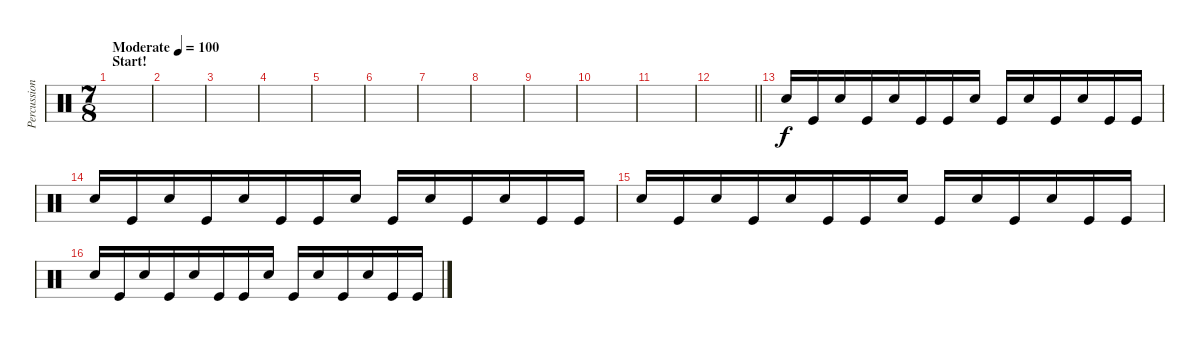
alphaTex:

\track ("Percussion" "Percussion") {instrument percussion}
\staff {score}
\articulation defaults
\ts (7 8)
\section ("" "Start!")
\tempo (100 "Moderate")
\clef neutral
\ks c
|
|
|
|
|
|
|
|
|
|
|
\barLineRight lightlight
|
\section ("" "")
"Snare (hit) 2".16 "Kick (hit)".16 "Snare (hit) 2".16 "Kick (hit)".16 "Snare (hit) 2".16 "Kick (hit)".16 "Kick (hit)".16 "Snare (hit) 2".16 "Kick (hit)".16 "Snare (hit) 2".16 "Kick (hit)".16 "Snare (hit) 2".16 "Kick (hit)".16 "Kick (hit)".16 |
"Snare (hit) 2".16 "Kick (hit)".16 "Snare (hit) 2".16 "Kick (hit)".16 "Snare (hit) 2".16 "Kick (hit)".16 "Kick (hit)".16 "Snare (hit) 2".16 "Kick (hit)".16 "Snare (hit) 2".16 "Kick (hit)".16 "Snare (hit) 2".16 "Kick (hit)".16 "Kick (hit)".16 |
"Snare (hit) 2".16 "Kick (hit)".16 "Snare (hit) 2".16 "Kick (hit)".16 "Snare (hit) 2".16 "Kick (hit)".16 "Kick (hit)".16 "Snare (hit) 2".16 "Kick (hit)".16 "Snare (hit) 2".16 "Kick (hit)".16 "Snare (hit) 2".16 "Kick (hit)".16 "Kick (hit)".16 |
"Snare (hit) 2".16 "Kick (hit)".16 "Snare (hit) 2".16 "Kick (hit)".16 "Snare (hit) 2".16 "Kick (hit)".16 "Kick (hit)".16 "Snare (hit) 2".16 "Kick (hit)".16 "Snare (hit) 2".16 "Kick (hit)".16 "Snare (hit) 2".16 "Kick (hit)".16 "Kick (hit)".16
